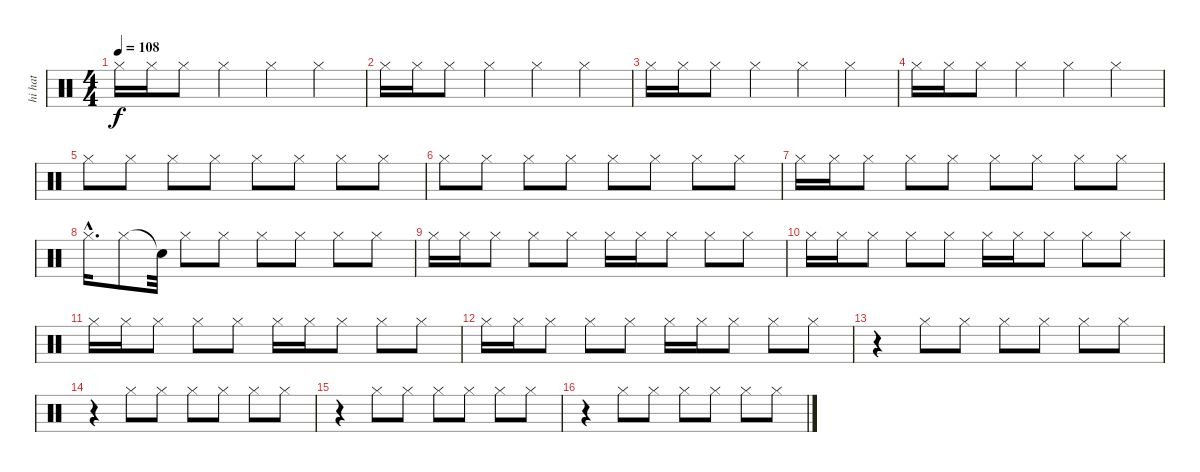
\track ("hi hat              " "hi hat    ") {instrument percussion}
\staff {score}
\articulation defaults
\ts (4 4)
\tempo 108
\clef neutral
\ks c "Hi-Hat (closed)".16{dy f} "Hi-Hat (closed)".16 "Hi-Hat (closed)".8 "Hi-Hat (closed)".4 "Hi-Hat (closed)".4 "Hi-Hat (closed)".4
|
"Hi-Hat (closed)".16 "Hi-Hat (closed)".16 "Hi-Hat (closed)".8 "Hi-Hat (closed)".4 "Hi-Hat (closed)".4 "Hi-Hat (closed)".4 |
"Hi-Hat (closed)".16 "Hi-Hat (closed)".16 "Hi-Hat (closed)".8 "Hi-Hat (closed)".4 "Hi-Hat (closed)".4 "Hi-Hat (closed)".4 |
"Hi-Hat (closed)".16 "Hi-Hat (closed)".16 "Hi-Hat (closed)".8 "Hi-Hat (closed)".4 "Hi-Hat (closed)".4 "Hi-Hat (closed)".4 |
"Hi-Hat (closed)".8 "Hi-Hat (closed)".8 "Hi-Hat (closed)".8 "Hi-Hat (closed)".8 "Hi-Hat (closed)".8 "Hi-Hat (closed)".8 "Hi-Hat (closed)".8 "Hi-Hat (closed)".8 |
"Hi-Hat (closed)".8 "Hi-Hat (closed)".8 "Hi-Hat (closed)".8 "Hi-Hat (closed)".8 "Hi-Hat (closed)".8 "Hi-Hat (closed)".8 "Hi-Hat (closed)".8 "Hi-Hat (closed)".8 |
"Hi-Hat (closed)".16 "Hi-Hat (closed)".16 "Hi-Hat (closed)".8 "Hi-Hat (closed)".8 "Hi-Hat (closed)".8 "Hi-Hat (closed)".8 "Hi-Hat (closed)".8 "Hi-Hat (closed)".8 "Hi-Hat (closed)".8 |
"Hi-Hat (closed)"{hac}.16{d} "Hi-Hat (closed)".8 "Snare (hit)"{t}.32 "Hi-Hat (closed)".8 "Hi-Hat (closed)".8 "Hi-Hat (closed)".8 "Hi-Hat (closed)".8 "Hi-Hat (closed)".8 "Hi-Hat (closed)".8 |
"Hi-Hat (closed)".16 "Hi-Hat (closed)".16 "Hi-Hat (closed)".8 "Hi-Hat (closed)".8 "Hi-Hat (closed)".8 "Hi-Hat (closed)".16 "Hi-Hat (closed)".16 "Hi-Hat (closed)".8 "Hi-Hat (closed)".8 "Hi-Hat (closed)".8 |
"Hi-Hat (closed)".16 "Hi-Hat (closed)".16 "Hi-Hat (closed)".8 "Hi-Hat (closed)".8 "Hi-Hat (closed)".8 "Hi-Hat (closed)".16 "Hi-Hat (closed)".16 "Hi-Hat (closed)".8 "Hi-Hat (closed)".8 "Hi-Hat (closed)".8 |
"Hi-Hat (closed)".16 "Hi-Hat (closed)".16 "Hi-Hat (closed)".8 "Hi-Hat (closed)".8 "Hi-Hat (closed)".8 "Hi-Hat (closed)".16 "Hi-Hat (closed)".16 "Hi-Hat (closed)".8 "Hi-Hat (closed)".8 "Hi-Hat (closed)".8 |
"Hi-Hat (closed)".16 "Hi-Hat (closed)".16 "Hi-Hat (closed)".8 "Hi-Hat (closed)".8 "Hi-Hat (closed)".8 "Hi-Hat (closed)".16 "Hi-Hat (closed)".16 "Hi-Hat (closed)".8 "Hi-Hat (closed)".8 "Hi-Hat (closed)".8 |
r.4 "Hi-Hat (closed)".8 "Hi-Hat (closed)".8 "Hi-Hat (closed)".8 "Hi-Hat (closed)".8 "Hi-Hat (closed)".8 "Hi-Hat (closed)".8 |
r.4 "Hi-Hat (closed)".8 "Hi-Hat (closed)".8 "Hi-Hat (closed)".8 "Hi-Hat (closed)".8 "Hi-Hat (closed)".8 "Hi-Hat (closed)".8 |
r.4 "Hi-Hat (closed)".8 "Hi-Hat (closed)".8 "Hi-Hat (closed)".8 "Hi-Hat (closed)".8 "Hi-Hat (closed)".8 "Hi-Hat (closed)".8 |
r.4 "Hi-Hat (closed)".8 "Hi-Hat (closed)".8 "Hi-Hat (closed)".8 "Hi-Hat (closed)".8 "Hi-Hat (closed)".8 "Hi-Hat (closed)".8
